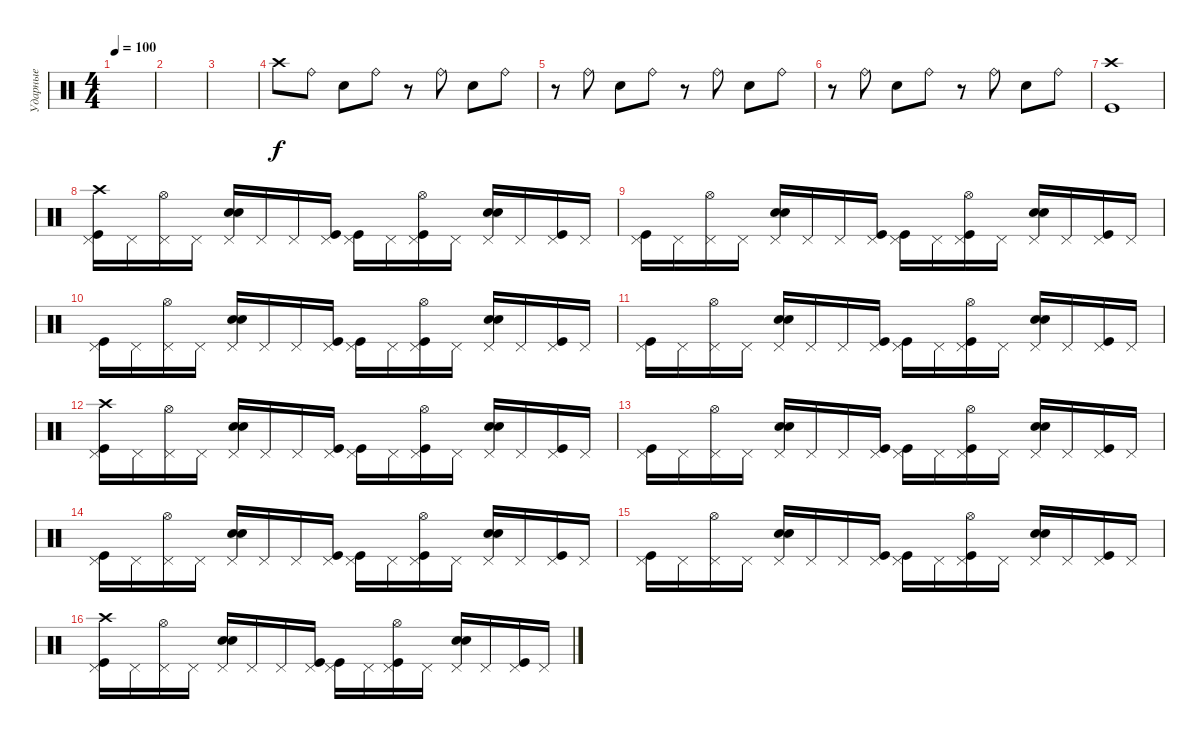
\track ("Ударные" "Ударные") {instrument percussion}
\staff {score}
\articulation defaults
\ts (4 4)
\tempo 100
\clef neutral
\ks c
|
|
|
"Crash high (hit)".8 "Ride (bell)".8 "Hand Clap (hit)".8 "Ride (bell)".8 r.8 "Ride (bell)".8 "Hand Clap (hit)".8 "Ride (bell)".8 |
r.8 "Ride (bell)".8 "Hand Clap (hit)".8 "Ride (bell)".8 r.8 "Ride (bell)".8 "Hand Clap (hit)".8 "Ride (bell)".8 |
r.8 "Ride (bell)".8 "Hand Clap (hit)".8 "Ride (bell)".8 r.8 "Ride (bell)".8 "Hand Clap (hit)".8 "Ride (bell)".8 |
("Kick (hit)" "Crash high (hit)").1 |
("Kick (hit)" "Pedal Hi-Hat (hit)" "Crash high (hit)").16 "Pedal Hi-Hat (hit)".16 ("Pedal Hi-Hat (hit)" "Hi-Hat (open)").16 "Pedal Hi-Hat (hit)".16 ("Pedal Hi-Hat (hit)" "Electric Snare (hit)" "Hand Clap (hit)").16 "Pedal Hi-Hat (hit)".16 "Pedal Hi-Hat (hit)".16 ("Kick (hit)" "Pedal Hi-Hat (hit)").16 ("Kick (hit)" "Pedal Hi-Hat (hit)").16 "Pedal Hi-Hat (hit)".16 ("Kick (hit)" "Pedal Hi-Hat (hit)" "Hi-Hat (open)").16 "Pedal Hi-Hat (hit)".16 ("Pedal Hi-Hat (hit)" "Electric Snare (hit)" "Hand Clap (hit)").16 "Pedal Hi-Hat (hit)".16 ("Kick (hit)" "Pedal Hi-Hat (hit)").16 "Pedal Hi-Hat (hit)".16 |
("Kick (hit)" "Pedal Hi-Hat (hit)").16 "Pedal Hi-Hat (hit)".16 ("Pedal Hi-Hat (hit)" "Hi-Hat (open)").16 "Pedal Hi-Hat (hit)".16 ("Pedal Hi-Hat (hit)" "Electric Snare (hit)" "Hand Clap (hit)").16 "Pedal Hi-Hat (hit)".16 "Pedal Hi-Hat (hit)".16 ("Kick (hit)" "Pedal Hi-Hat (hit)").16 ("Kick (hit)" "Pedal Hi-Hat (hit)").16 "Pedal Hi-Hat (hit)".16 ("Kick (hit)" "Pedal Hi-Hat (hit)" "Hi-Hat (open)").16 "Pedal Hi-Hat (hit)".16 ("Pedal Hi-Hat (hit)" "Electric Snare (hit)" "Hand Clap (hit)").16 "Pedal Hi-Hat (hit)".16 ("Kick (hit)" "Pedal Hi-Hat (hit)").16 "Pedal Hi-Hat (hit)".16 |
("Kick (hit)" "Pedal Hi-Hat (hit)").16 "Pedal Hi-Hat (hit)".16 ("Pedal Hi-Hat (hit)" "Hi-Hat (open)").16 "Pedal Hi-Hat (hit)".16 ("Pedal Hi-Hat (hit)" "Electric Snare (hit)" "Hand Clap (hit)").16 "Pedal Hi-Hat (hit)".16 "Pedal Hi-Hat (hit)".16 ("Kick (hit)" "Pedal Hi-Hat (hit)").16 ("Kick (hit)" "Pedal Hi-Hat (hit)").16 "Pedal Hi-Hat (hit)".16 ("Kick (hit)" "Pedal Hi-Hat (hit)" "Hi-Hat (open)").16 "Pedal Hi-Hat (hit)".16 ("Pedal Hi-Hat (hit)" "Electric Snare (hit)" "Hand Clap (hit)").16 "Pedal Hi-Hat (hit)".16 ("Kick (hit)" "Pedal Hi-Hat (hit)").16 "Pedal Hi-Hat (hit)".16 |
("Kick (hit)" "Pedal Hi-Hat (hit)").16 "Pedal Hi-Hat (hit)".16 ("Pedal Hi-Hat (hit)" "Hi-Hat (open)").16 "Pedal Hi-Hat (hit)".16 ("Pedal Hi-Hat (hit)" "Electric Snare (hit)" "Hand Clap (hit)").16 "Pedal Hi-Hat (hit)".16 "Pedal Hi-Hat (hit)".16 ("Kick (hit)" "Pedal Hi-Hat (hit)").16 ("Kick (hit)" "Pedal Hi-Hat (hit)").16 "Pedal Hi-Hat (hit)".16 ("Kick (hit)" "Pedal Hi-Hat (hit)" "Hi-Hat (open)").16 "Pedal Hi-Hat (hit)".16 ("Pedal Hi-Hat (hit)" "Electric Snare (hit)" "Hand Clap (hit)").16 "Pedal Hi-Hat (hit)".16 ("Kick (hit)" "Pedal Hi-Hat (hit)").16 "Pedal Hi-Hat (hit)".16 |
("Kick (hit)" "Pedal Hi-Hat (hit)" "Crash high (hit)").16 "Pedal Hi-Hat (hit)".16 ("Pedal Hi-Hat (hit)" "Hi-Hat (open)").16 "Pedal Hi-Hat (hit)".16 ("Pedal Hi-Hat (hit)" "Electric Snare (hit)" "Hand Clap (hit)").16 "Pedal Hi-Hat (hit)".16 "Pedal Hi-Hat (hit)".16 ("Kick (hit)" "Pedal Hi-Hat (hit)").16 ("Kick (hit)" "Pedal Hi-Hat (hit)").16 "Pedal Hi-Hat (hit)".16 ("Kick (hit)" "Pedal Hi-Hat (hit)" "Hi-Hat (open)").16 "Pedal Hi-Hat (hit)".16 ("Pedal Hi-Hat (hit)" "Electric Snare (hit)" "Hand Clap (hit)").16 "Pedal Hi-Hat (hit)".16 ("Kick (hit)" "Pedal Hi-Hat (hit)").16 "Pedal Hi-Hat (hit)".16 |
("Kick (hit)" "Pedal Hi-Hat (hit)").16 "Pedal Hi-Hat (hit)".16 ("Pedal Hi-Hat (hit)" "Hi-Hat (open)").16 "Pedal Hi-Hat (hit)".16 ("Pedal Hi-Hat (hit)" "Electric Snare (hit)" "Hand Clap (hit)").16 "Pedal Hi-Hat (hit)".16 "Pedal Hi-Hat (hit)".16 ("Kick (hit)" "Pedal Hi-Hat (hit)").16 ("Kick (hit)" "Pedal Hi-Hat (hit)").16 "Pedal Hi-Hat (hit)".16 ("Kick (hit)" "Pedal Hi-Hat (hit)" "Hi-Hat (open)").16 "Pedal Hi-Hat (hit)".16 ("Pedal Hi-Hat (hit)" "Electric Snare (hit)" "Hand Clap (hit)").16 "Pedal Hi-Hat (hit)".16 ("Kick (hit)" "Pedal Hi-Hat (hit)").16 "Pedal Hi-Hat (hit)".16 |
("Kick (hit)" "Pedal Hi-Hat (hit)").16 "Pedal Hi-Hat (hit)".16 ("Pedal Hi-Hat (hit)" "Hi-Hat (open)").16 "Pedal Hi-Hat (hit)".16 ("Pedal Hi-Hat (hit)" "Electric Snare (hit)" "Hand Clap (hit)").16 "Pedal Hi-Hat (hit)".16 "Pedal Hi-Hat (hit)".16 ("Kick (hit)" "Pedal Hi-Hat (hit)").16 ("Kick (hit)" "Pedal Hi-Hat (hit)").16 "Pedal Hi-Hat (hit)".16 ("Kick (hit)" "Pedal Hi-Hat (hit)" "Hi-Hat (open)").16 "Pedal Hi-Hat (hit)".16 ("Pedal Hi-Hat (hit)" "Electric Snare (hit)" "Hand Clap (hit)").16 "Pedal Hi-Hat (hit)".16 ("Kick (hit)" "Pedal Hi-Hat (hit)").16 "Pedal Hi-Hat (hit)".16 |
("Kick (hit)" "Pedal Hi-Hat (hit)").16 "Pedal Hi-Hat (hit)".16 ("Pedal Hi-Hat (hit)" "Hi-Hat (open)").16 "Pedal Hi-Hat (hit)".16 ("Pedal Hi-Hat (hit)" "Electric Snare (hit)" "Hand Clap (hit)").16 "Pedal Hi-Hat (hit)".16 "Pedal Hi-Hat (hit)".16 ("Kick (hit)" "Pedal Hi-Hat (hit)").16 ("Kick (hit)" "Pedal Hi-Hat (hit)").16 "Pedal Hi-Hat (hit)".16 ("Kick (hit)" "Pedal Hi-Hat (hit)" "Hi-Hat (open)").16 "Pedal Hi-Hat (hit)".16 ("Pedal Hi-Hat (hit)" "Electric Snare (hit)" "Hand Clap (hit)").16 "Pedal Hi-Hat (hit)".16 ("Kick (hit)" "Pedal Hi-Hat (hit)").16 "Pedal Hi-Hat (hit)".16 |
("Kick (hit)" "Pedal Hi-Hat (hit)" "Crash high (hit)").16 "Pedal Hi-Hat (hit)".16 ("Pedal Hi-Hat (hit)" "Hi-Hat (open)").16 "Pedal Hi-Hat (hit)".16 ("Pedal Hi-Hat (hit)" "Electric Snare (hit)" "Hand Clap (hit)").16 "Pedal Hi-Hat (hit)".16 "Pedal Hi-Hat (hit)".16 ("Kick (hit)" "Pedal Hi-Hat (hit)").16 ("Kick (hit)" "Pedal Hi-Hat (hit)").16 "Pedal Hi-Hat (hit)".16 ("Kick (hit)" "Pedal Hi-Hat (hit)" "Hi-Hat (open)").16 "Pedal Hi-Hat (hit)".16 ("Pedal Hi-Hat (hit)" "Electric Snare (hit)" "Hand Clap (hit)").16 "Pedal Hi-Hat (hit)".16 ("Kick (hit)" "Pedal Hi-Hat (hit)").16 "Pedal Hi-Hat (hit)".16
